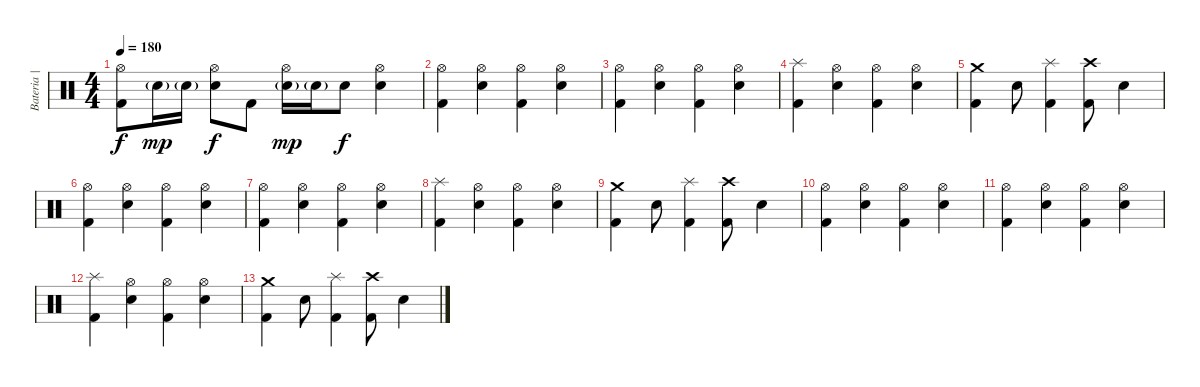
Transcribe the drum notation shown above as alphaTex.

\track ("Bateria | Fábio" "Bateria | ") {instrument percussion}
\staff {score}
\articulation defaults
\ts (4 4)
\tempo 180
\clef neutral
\ks c
("Hi-Hat (open)" "Kick (hit) 2").8{dy f} "Snare (hit) 2"{g}.16{dy mp} "Snare (hit) 2"{g}.16 ("Hi-Hat (open)" "Snare (hit) 2").8{dy f} "Kick (hit) 2".8 ("Hi-Hat (open)" "Snare (hit) 2"{g}).16{dy mp} "Snare (hit) 2"{g}.16 "Snare (hit) 2".8{dy f} ("Hi-Hat (open)" "Snare (hit) 2").4 |
("Hi-Hat (open)" "Kick (hit) 2").4 ("Hi-Hat (open)" "Snare (hit) 2").4 ("Hi-Hat (open)" "Kick (hit) 2").4 ("Hi-Hat (open)" "Snare (hit) 2").4 |
("Hi-Hat (open)" "Kick (hit) 2").4 ("Hi-Hat (open)" "Snare (hit) 2").4 ("Hi-Hat (open)" "Kick (hit) 2").4 ("Hi-Hat (open)" "Snare (hit) 2").4 |
("Splash (hit)" "Kick (hit) 2").4 ("Hi-Hat (open)" "Snare (hit) 2").4 ("Hi-Hat (open)" "Kick (hit) 2").4 ("Hi-Hat (open)" "Snare (hit) 2").4 |
("Crash medium (hit)" "Kick (hit) 2").4 "Snare (hit) 2".8 ("Splash (hit)" "Kick (hit) 2").4 ("Crash high (hit)" "Kick (hit) 2").8 "Snare (hit) 2".4 |
("Hi-Hat (open)" "Kick (hit) 2").4 ("Hi-Hat (open)" "Snare (hit) 2").4 ("Hi-Hat (open)" "Kick (hit) 2").4 ("Hi-Hat (open)" "Snare (hit) 2").4 |
("Hi-Hat (open)" "Kick (hit) 2").4 ("Hi-Hat (open)" "Snare (hit) 2").4 ("Hi-Hat (open)" "Kick (hit) 2").4 ("Hi-Hat (open)" "Snare (hit) 2").4 |
("Splash (hit)" "Kick (hit) 2").4 ("Hi-Hat (open)" "Snare (hit) 2").4 ("Hi-Hat (open)" "Kick (hit) 2").4 ("Hi-Hat (open)" "Snare (hit) 2").4 |
("Crash medium (hit)" "Kick (hit) 2").4 "Snare (hit) 2".8 ("Splash (hit)" "Kick (hit) 2").4 ("Crash high (hit)" "Kick (hit) 2").8 "Snare (hit) 2".4 |
("Hi-Hat (open)" "Kick (hit) 2").4 ("Hi-Hat (open)" "Snare (hit) 2").4 ("Hi-Hat (open)" "Kick (hit) 2").4 ("Hi-Hat (open)" "Snare (hit) 2").4 |
("Hi-Hat (open)" "Kick (hit) 2").4 ("Hi-Hat (open)" "Snare (hit) 2").4 ("Hi-Hat (open)" "Kick (hit) 2").4 ("Hi-Hat (open)" "Snare (hit) 2").4 |
("Splash (hit)" "Kick (hit) 2").4 ("Hi-Hat (open)" "Snare (hit) 2").4 ("Hi-Hat (open)" "Kick (hit) 2").4 ("Hi-Hat (open)" "Snare (hit) 2").4 |
("Crash medium (hit)" "Kick (hit) 2").4 "Snare (hit) 2".8 ("Splash (hit)" "Kick (hit) 2").4 ("Crash high (hit)" "Kick (hit) 2").8 "Snare (hit) 2".4
